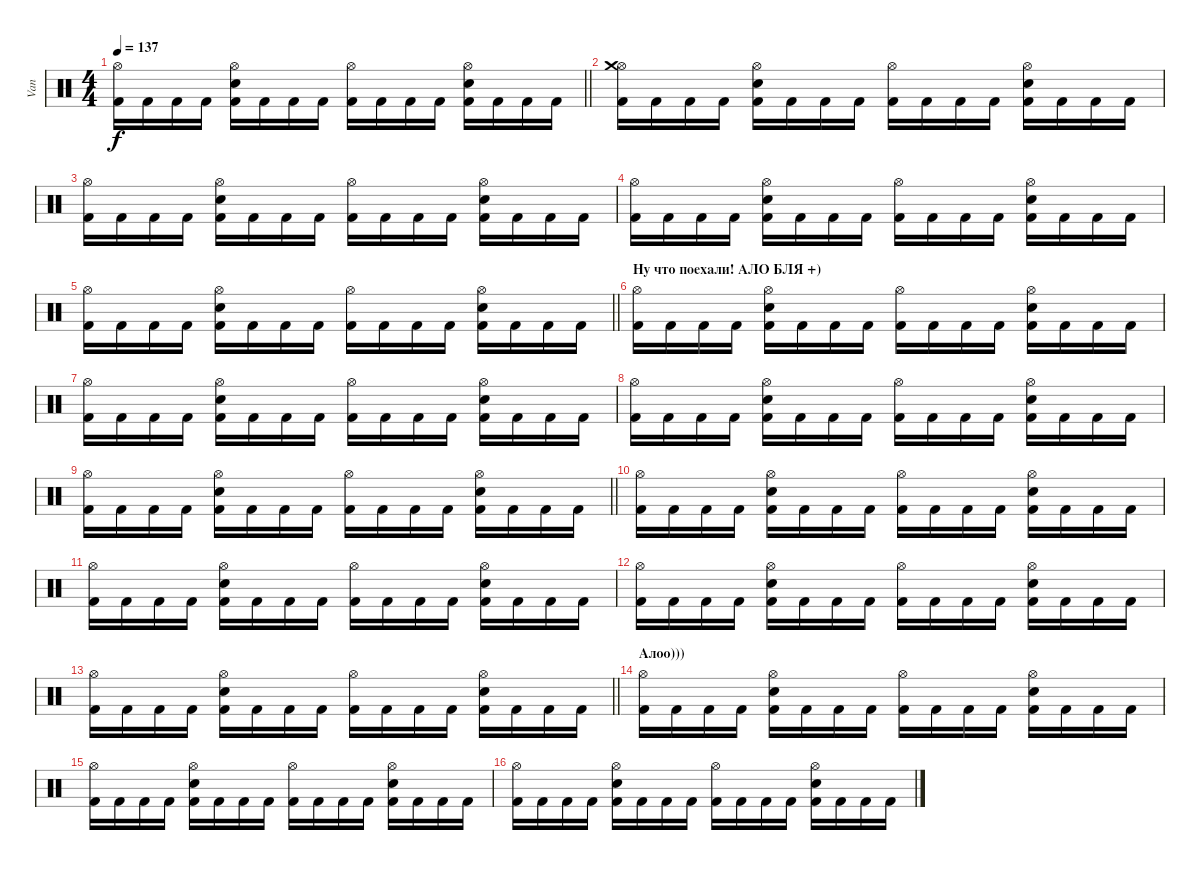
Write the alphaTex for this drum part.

\track ("Van" "Van") {instrument percussion}
\staff {score}
\articulation defaults
\ts (4 4)
\tempo 137
\clef neutral
\barLineRight lightlight
\ks c
("Hi-Hat (open)" "Kick (hit) 2").16{dy f} "Kick (hit) 2".16 "Kick (hit) 2".16 "Kick (hit) 2".16 ("Hi-Hat (open)" "Snare (hit) 2" "Kick (hit) 2").16 "Kick (hit) 2".16 "Kick (hit) 2".16 "Kick (hit) 2".16 ("Hi-Hat (open)" "Kick (hit) 2").16 "Kick (hit) 2".16 "Kick (hit) 2".16 "Kick (hit) 2".16 ("Hi-Hat (open)" "Electric Snare (hit)" "Kick (hit) 2").16 "Kick (hit) 2".16 "Kick (hit) 2".16 "Kick (hit) 2".16 |
("Hi-Hat (open)" "Crash medium (hit)" "Kick (hit) 2").16 "Kick (hit) 2".16 "Kick (hit) 2".16 "Kick (hit) 2".16 ("Hi-Hat (open)" "Snare (hit) 2" "Kick (hit) 2").16 "Kick (hit) 2".16 "Kick (hit) 2".16 "Kick (hit) 2".16 ("Hi-Hat (open)" "Kick (hit) 2").16 "Kick (hit) 2".16 "Kick (hit) 2".16 "Kick (hit) 2".16 ("Hi-Hat (open)" "Electric Snare (hit)" "Kick (hit) 2").16 "Kick (hit) 2".16 "Kick (hit) 2".16 "Kick (hit) 2".16 |
("Hi-Hat (open)" "Kick (hit) 2").16 "Kick (hit) 2".16 "Kick (hit) 2".16 "Kick (hit) 2".16 ("Hi-Hat (open)" "Snare (hit) 2" "Kick (hit) 2").16 "Kick (hit) 2".16 "Kick (hit) 2".16 "Kick (hit) 2".16 ("Hi-Hat (open)" "Kick (hit) 2").16 "Kick (hit) 2".16 "Kick (hit) 2".16 "Kick (hit) 2".16 ("Hi-Hat (open)" "Electric Snare (hit)" "Kick (hit) 2").16 "Kick (hit) 2".16 "Kick (hit) 2".16 "Kick (hit) 2".16 |
("Hi-Hat (open)" "Kick (hit) 2").16 "Kick (hit) 2".16 "Kick (hit) 2".16 "Kick (hit) 2".16 ("Hi-Hat (open)" "Snare (hit) 2" "Kick (hit) 2").16 "Kick (hit) 2".16 "Kick (hit) 2".16 "Kick (hit) 2".16 ("Hi-Hat (open)" "Kick (hit) 2").16 "Kick (hit) 2".16 "Kick (hit) 2".16 "Kick (hit) 2".16 ("Hi-Hat (open)" "Electric Snare (hit)" "Kick (hit) 2").16 "Kick (hit) 2".16 "Kick (hit) 2".16 "Kick (hit) 2".16 |
\barLineRight lightlight
("Hi-Hat (open)" "Kick (hit) 2").16 "Kick (hit) 2".16 "Kick (hit) 2".16 "Kick (hit) 2".16 ("Hi-Hat (open)" "Snare (hit) 2" "Kick (hit) 2").16 "Kick (hit) 2".16 "Kick (hit) 2".16 "Kick (hit) 2".16 ("Hi-Hat (open)" "Kick (hit) 2").16 "Kick (hit) 2".16 "Kick (hit) 2".16 "Kick (hit) 2".16 ("Hi-Hat (open)" "Electric Snare (hit)" "Kick (hit) 2").16 "Kick (hit) 2".16 "Kick (hit) 2".16 "Kick (hit) 2".16 |
\section ("" "Ну что поехали! АЛО БЛЯ +)")
("Hi-Hat (open)" "Kick (hit) 2").16 "Kick (hit) 2".16 "Kick (hit) 2".16 "Kick (hit) 2".16 ("Hi-Hat (open)" "Electric Snare (hit)" "Kick (hit) 2").16 "Kick (hit) 2".16 "Kick (hit) 2".16 "Kick (hit) 2".16 ("Hi-Hat (open)" "Kick (hit) 2").16 "Kick (hit) 2".16 "Kick (hit) 2".16 "Kick (hit) 2".16 ("Hi-Hat (open)" "Electric Snare (hit)" "Kick (hit) 2").16 "Kick (hit) 2".16 "Kick (hit) 2".16 "Kick (hit) 2".16 |
("Hi-Hat (open)" "Kick (hit) 2").16 "Kick (hit) 2".16 "Kick (hit) 2".16 "Kick (hit) 2".16 ("Hi-Hat (open)" "Electric Snare (hit)" "Kick (hit) 2").16 "Kick (hit) 2".16 "Kick (hit) 2".16 "Kick (hit) 2".16 ("Hi-Hat (open)" "Kick (hit) 2").16 "Kick (hit) 2".16 "Kick (hit) 2".16 "Kick (hit) 2".16 ("Hi-Hat (open)" "Electric Snare (hit)" "Kick (hit) 2").16 "Kick (hit) 2".16 "Kick (hit) 2".16 "Kick (hit) 2".16 |
("Hi-Hat (open)" "Kick (hit) 2").16 "Kick (hit) 2".16 "Kick (hit) 2".16 "Kick (hit) 2".16 ("Hi-Hat (open)" "Electric Snare (hit)" "Kick (hit) 2").16 "Kick (hit) 2".16 "Kick (hit) 2".16 "Kick (hit) 2".16 ("Hi-Hat (open)" "Kick (hit) 2").16 "Kick (hit) 2".16 "Kick (hit) 2".16 "Kick (hit) 2".16 ("Hi-Hat (open)" "Electric Snare (hit)" "Kick (hit) 2").16 "Kick (hit) 2".16 "Kick (hit) 2".16 "Kick (hit) 2".16 |
\barLineRight lightlight
("Hi-Hat (open)" "Kick (hit) 2").16 "Kick (hit) 2".16 "Kick (hit) 2".16 "Kick (hit) 2".16 ("Hi-Hat (open)" "Electric Snare (hit)" "Kick (hit) 2").16 "Kick (hit) 2".16 "Kick (hit) 2".16 "Kick (hit) 2".16 ("Hi-Hat (open)" "Kick (hit) 2").16 "Kick (hit) 2".16 "Kick (hit) 2".16 "Kick (hit) 2".16 ("Hi-Hat (open)" "Electric Snare (hit)" "Kick (hit) 2").16 "Kick (hit) 2".16 "Kick (hit) 2".16 "Kick (hit) 2".16 |
("Hi-Hat (open)" "Kick (hit) 2").16 "Kick (hit) 2".16 "Kick (hit) 2".16 "Kick (hit) 2".16 ("Hi-Hat (open)" "Electric Snare (hit)" "Kick (hit) 2").16 "Kick (hit) 2".16 "Kick (hit) 2".16 "Kick (hit) 2".16 ("Hi-Hat (open)" "Kick (hit) 2").16 "Kick (hit) 2".16 "Kick (hit) 2".16 "Kick (hit) 2".16 ("Hi-Hat (open)" "Electric Snare (hit)" "Kick (hit) 2").16 "Kick (hit) 2".16 "Kick (hit) 2".16 "Kick (hit) 2".16 |
("Hi-Hat (open)" "Kick (hit) 2").16 "Kick (hit) 2".16 "Kick (hit) 2".16 "Kick (hit) 2".16 ("Hi-Hat (open)" "Electric Snare (hit)" "Kick (hit) 2").16 "Kick (hit) 2".16 "Kick (hit) 2".16 "Kick (hit) 2".16 ("Hi-Hat (open)" "Kick (hit) 2").16 "Kick (hit) 2".16 "Kick (hit) 2".16 "Kick (hit) 2".16 ("Hi-Hat (open)" "Electric Snare (hit)" "Kick (hit) 2").16 "Kick (hit) 2".16 "Kick (hit) 2".16 "Kick (hit) 2".16 |
("Hi-Hat (open)" "Kick (hit) 2").16 "Kick (hit) 2".16 "Kick (hit) 2".16 "Kick (hit) 2".16 ("Hi-Hat (open)" "Electric Snare (hit)" "Kick (hit) 2").16 "Kick (hit) 2".16 "Kick (hit) 2".16 "Kick (hit) 2".16 ("Hi-Hat (open)" "Kick (hit) 2").16 "Kick (hit) 2".16 "Kick (hit) 2".16 "Kick (hit) 2".16 ("Hi-Hat (open)" "Electric Snare (hit)" "Kick (hit) 2").16 "Kick (hit) 2".16 "Kick (hit) 2".16 "Kick (hit) 2".16 |
\barLineRight lightlight
("Hi-Hat (open)" "Kick (hit) 2").16 "Kick (hit) 2".16 "Kick (hit) 2".16 "Kick (hit) 2".16 ("Hi-Hat (open)" "Electric Snare (hit)" "Kick (hit) 2").16 "Kick (hit) 2".16 "Kick (hit) 2".16 "Kick (hit) 2".16 ("Hi-Hat (open)" "Kick (hit) 2").16 "Kick (hit) 2".16 "Kick (hit) 2".16 "Kick (hit) 2".16 ("Hi-Hat (open)" "Electric Snare (hit)" "Kick (hit) 2").16 "Kick (hit) 2".16 "Kick (hit) 2".16 "Kick (hit) 2".16 |
\section ("" "Алоо)))")
("Hi-Hat (open)" "Kick (hit) 2").16 "Kick (hit) 2".16 "Kick (hit) 2".16 "Kick (hit) 2".16 ("Hi-Hat (open)" "Electric Snare (hit)" "Kick (hit) 2").16 "Kick (hit) 2".16 "Kick (hit) 2".16 "Kick (hit) 2".16 ("Hi-Hat (open)" "Kick (hit) 2").16 "Kick (hit) 2".16 "Kick (hit) 2".16 "Kick (hit) 2".16 ("Hi-Hat (open)" "Electric Snare (hit)" "Kick (hit) 2").16 "Kick (hit) 2".16 "Kick (hit) 2".16 "Kick (hit) 2".16 |
("Hi-Hat (open)" "Kick (hit) 2").16 "Kick (hit) 2".16 "Kick (hit) 2".16 "Kick (hit) 2".16 ("Hi-Hat (open)" "Electric Snare (hit)" "Kick (hit) 2").16 "Kick (hit) 2".16 "Kick (hit) 2".16 "Kick (hit) 2".16 ("Hi-Hat (open)" "Kick (hit) 2").16 "Kick (hit) 2".16 "Kick (hit) 2".16 "Kick (hit) 2".16 ("Hi-Hat (open)" "Electric Snare (hit)" "Kick (hit) 2").16 "Kick (hit) 2".16 "Kick (hit) 2".16 "Kick (hit) 2".16 |
("Hi-Hat (open)" "Kick (hit) 2").16 "Kick (hit) 2".16 "Kick (hit) 2".16 "Kick (hit) 2".16 ("Hi-Hat (open)" "Electric Snare (hit)" "Kick (hit) 2").16 "Kick (hit) 2".16 "Kick (hit) 2".16 "Kick (hit) 2".16 ("Hi-Hat (open)" "Kick (hit) 2").16 "Kick (hit) 2".16 "Kick (hit) 2".16 "Kick (hit) 2".16 ("Hi-Hat (open)" "Electric Snare (hit)" "Kick (hit) 2").16 "Kick (hit) 2".16 "Kick (hit) 2".16 "Kick (hit) 2".16
